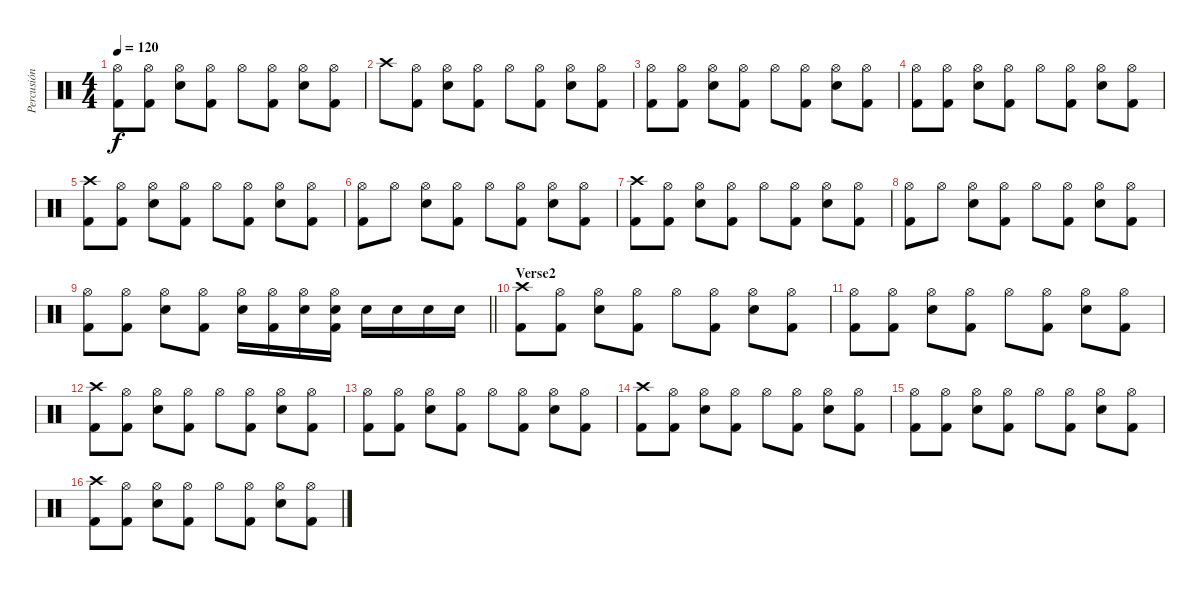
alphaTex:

\track ("Percusión" "Percusión") {instrument percussion}
\staff {score}
\articulation defaults
\ts (4 4)
\tempo 120
\clef neutral
\ks c
("Hi-Hat (open)" "Kick (hit) 2").8{dy f} ("Hi-Hat (open)" "Kick (hit) 2").8 ("Hi-Hat (open)" "Snare (hit) 2").8 ("Hi-Hat (open)" "Kick (hit) 2").8 "Hi-Hat (open)".8 ("Hi-Hat (open)" "Kick (hit) 2").8 ("Hi-Hat (open)" "Snare (hit) 2").8 ("Hi-Hat (open)" "Kick (hit) 2").8 |
"Crash high (hit)".8 ("Hi-Hat (open)" "Kick (hit) 2").8 ("Hi-Hat (open)" "Snare (hit) 2").8 ("Hi-Hat (open)" "Kick (hit) 2").8 "Hi-Hat (open)".8 ("Hi-Hat (open)" "Kick (hit) 2").8 ("Hi-Hat (open)" "Snare (hit) 2").8 ("Hi-Hat (open)" "Kick (hit) 2").8 |
("Hi-Hat (open)" "Kick (hit) 2").8 ("Hi-Hat (open)" "Kick (hit) 2").8 ("Hi-Hat (open)" "Snare (hit) 2").8 ("Hi-Hat (open)" "Kick (hit) 2").8 "Hi-Hat (open)".8 ("Hi-Hat (open)" "Kick (hit) 2").8 ("Hi-Hat (open)" "Snare (hit) 2").8 ("Hi-Hat (open)" "Kick (hit) 2").8 |
("Hi-Hat (open)" "Kick (hit) 2").8 ("Hi-Hat (open)" "Kick (hit) 2").8 ("Hi-Hat (open)" "Snare (hit) 2").8 ("Hi-Hat (open)" "Kick (hit) 2").8 "Hi-Hat (open)".8 ("Hi-Hat (open)" "Kick (hit) 2").8 ("Hi-Hat (open)" "Snare (hit) 2").8 ("Hi-Hat (open)" "Kick (hit) 2").8 |
("Crash high (hit)" "Kick (hit) 2").8 ("Hi-Hat (open)" "Kick (hit) 2").8 ("Hi-Hat (open)" "Snare (hit) 2").8 ("Hi-Hat (open)" "Kick (hit) 2").8 "Hi-Hat (open)".8 ("Hi-Hat (open)" "Kick (hit) 2").8 ("Hi-Hat (open)" "Snare (hit) 2").8 ("Hi-Hat (open)" "Kick (hit) 2").8 |
("Hi-Hat (open)" "Kick (hit) 2").8 "Hi-Hat (open)".8 ("Hi-Hat (open)" "Snare (hit) 2").8 ("Hi-Hat (open)" "Kick (hit) 2").8 "Hi-Hat (open)".8 ("Hi-Hat (open)" "Kick (hit) 2").8 ("Hi-Hat (open)" "Snare (hit) 2").8 ("Hi-Hat (open)" "Kick (hit) 2").8 |
("Crash high (hit)" "Kick (hit) 2").8 ("Hi-Hat (open)" "Kick (hit) 2").8 ("Hi-Hat (open)" "Snare (hit) 2").8 ("Hi-Hat (open)" "Kick (hit) 2").8 "Hi-Hat (open)".8 ("Hi-Hat (open)" "Kick (hit) 2").8 ("Hi-Hat (open)" "Snare (hit) 2").8 ("Hi-Hat (open)" "Kick (hit) 2").8 |
("Hi-Hat (open)" "Kick (hit) 2").8 "Hi-Hat (open)".8 ("Hi-Hat (open)" "Snare (hit) 2").8 ("Hi-Hat (open)" "Kick (hit) 2").8 "Hi-Hat (open)".8 ("Hi-Hat (open)" "Kick (hit) 2").8 ("Hi-Hat (open)" "Snare (hit) 2").8 ("Hi-Hat (open)" "Kick (hit) 2").8 |
\barLineRight lightlight
("Hi-Hat (open)" "Kick (hit) 2").8 ("Hi-Hat (open)" "Kick (hit) 2").8 ("Hi-Hat (open)" "Snare (hit) 2").8 ("Hi-Hat (open)" "Kick (hit) 2").8 ("Hi-Hat (open)" "Snare (hit) 2").16 ("Hi-Hat (open)" "Kick (hit) 2").16 ("Hi-Hat (open)" "Snare (hit) 2").16 ("Hi-Hat (open)" "Snare (hit) 2" "Kick (hit) 2").16 "Snare (hit) 2".16 "Snare (hit) 2".16 "Snare (hit) 2".16 "Snare (hit) 2".16 |
\section ("" "Verse2")
("Crash high (hit)" "Kick (hit) 2").8 ("Hi-Hat (open)" "Kick (hit) 2").8 ("Hi-Hat (open)" "Snare (hit) 2").8 ("Hi-Hat (open)" "Kick (hit) 2").8 "Hi-Hat (open)".8 ("Hi-Hat (open)" "Kick (hit) 2").8 ("Hi-Hat (open)" "Snare (hit) 2").8 ("Hi-Hat (open)" "Kick (hit) 2").8 |
("Hi-Hat (open)" "Kick (hit) 2").8 ("Hi-Hat (open)" "Kick (hit) 2").8 ("Hi-Hat (open)" "Snare (hit) 2").8 ("Hi-Hat (open)" "Kick (hit) 2").8 "Hi-Hat (open)".8 ("Hi-Hat (open)" "Kick (hit) 2").8 ("Hi-Hat (open)" "Snare (hit) 2").8 ("Hi-Hat (open)" "Kick (hit) 2").8 |
("Crash high (hit)" "Kick (hit) 2").8 ("Hi-Hat (open)" "Kick (hit) 2").8 ("Hi-Hat (open)" "Snare (hit) 2").8 ("Hi-Hat (open)" "Kick (hit) 2").8 "Hi-Hat (open)".8 ("Hi-Hat (open)" "Kick (hit) 2").8 ("Hi-Hat (open)" "Snare (hit) 2").8 ("Hi-Hat (open)" "Kick (hit) 2").8 |
("Hi-Hat (open)" "Kick (hit) 2").8 ("Hi-Hat (open)" "Kick (hit) 2").8 ("Hi-Hat (open)" "Snare (hit) 2").8 ("Hi-Hat (open)" "Kick (hit) 2").8 "Hi-Hat (open)".8 ("Hi-Hat (open)" "Kick (hit) 2").8 ("Hi-Hat (open)" "Snare (hit) 2").8 ("Hi-Hat (open)" "Kick (hit) 2").8 |
("Crash high (hit)" "Kick (hit) 2").8 ("Hi-Hat (open)" "Kick (hit) 2").8 ("Hi-Hat (open)" "Snare (hit) 2").8 ("Hi-Hat (open)" "Kick (hit) 2").8 "Hi-Hat (open)".8 ("Hi-Hat (open)" "Kick (hit) 2").8 ("Hi-Hat (open)" "Snare (hit) 2").8 ("Hi-Hat (open)" "Kick (hit) 2").8 |
("Hi-Hat (open)" "Kick (hit) 2").8 ("Hi-Hat (open)" "Kick (hit) 2").8 ("Hi-Hat (open)" "Snare (hit) 2").8 ("Hi-Hat (open)" "Kick (hit) 2").8 "Hi-Hat (open)".8 ("Hi-Hat (open)" "Kick (hit) 2").8 ("Hi-Hat (open)" "Snare (hit) 2").8 ("Hi-Hat (open)" "Kick (hit) 2").8 |
("Crash high (hit)" "Kick (hit) 2").8 ("Hi-Hat (open)" "Kick (hit) 2").8 ("Hi-Hat (open)" "Snare (hit) 2").8 ("Hi-Hat (open)" "Kick (hit) 2").8 "Hi-Hat (open)".8 ("Hi-Hat (open)" "Kick (hit) 2").8 ("Hi-Hat (open)" "Snare (hit) 2").8 ("Hi-Hat (open)" "Kick (hit) 2").8
